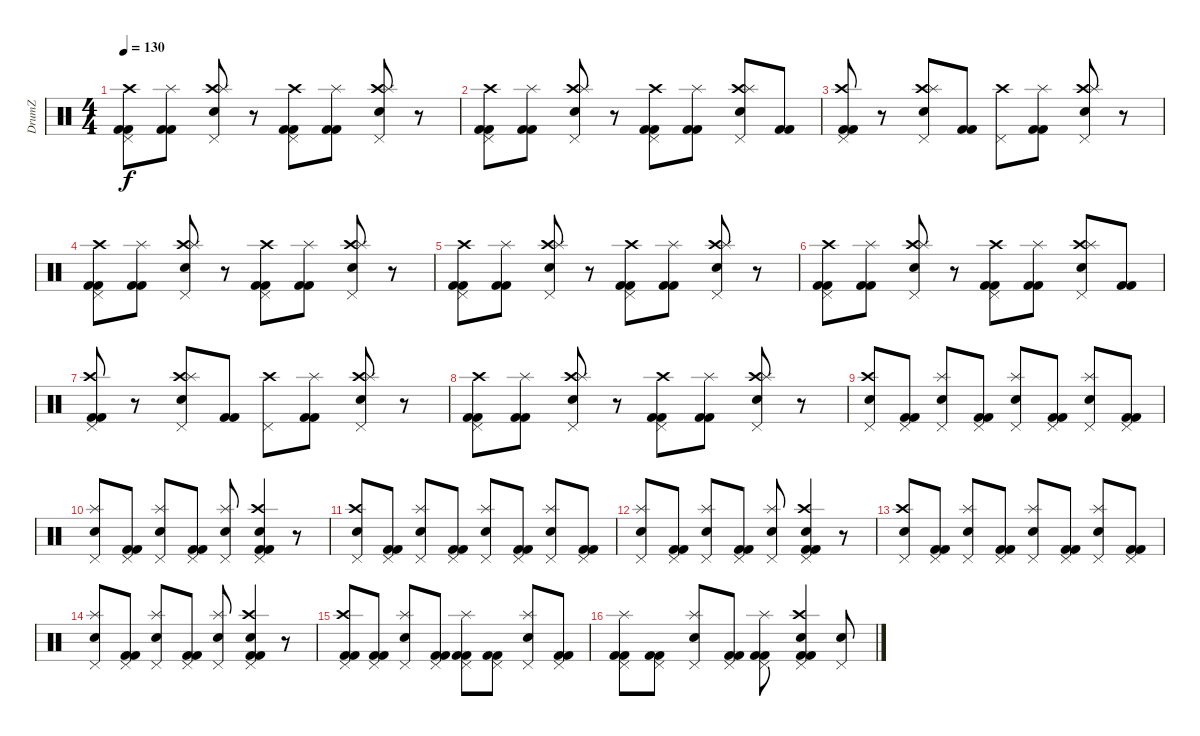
\track ("DrumZ" "DrumZ") {instrument percussion}
\staff {score}
\articulation defaults
\ts (4 4)
\tempo 130
\clef neutral
\ks c
("Pedal Hi-Hat (hit)" "Crash high (hit)" "Kick (hit) 2" "Kick (hit) 2").8{dy f} ("Splash (hit)" "Kick (hit) 2" "Kick (hit) 2").8 ("Pedal Hi-Hat (hit)" "Crash high (hit)" "Splash (hit)" "Snare (hit) 2").8 r.8 ("Pedal Hi-Hat (hit)" "Crash high (hit)" "Kick (hit) 2" "Kick (hit) 2").8 ("Splash (hit)" "Kick (hit) 2" "Kick (hit) 2").8 ("Pedal Hi-Hat (hit)" "Crash high (hit)" "Splash (hit)" "Snare (hit) 2").8 r.8 |
("Pedal Hi-Hat (hit)" "Crash high (hit)" "Kick (hit) 2" "Kick (hit) 2").8 ("Splash (hit)" "Kick (hit) 2" "Kick (hit) 2").8 ("Pedal Hi-Hat (hit)" "Crash high (hit)" "Splash (hit)" "Snare (hit) 2").8 r.8 ("Pedal Hi-Hat (hit)" "Crash high (hit)" "Kick (hit) 2" "Kick (hit) 2").8 ("Splash (hit)" "Kick (hit) 2" "Kick (hit) 2").8 ("Pedal Hi-Hat (hit)" "Crash high (hit)" "Splash (hit)" "Snare (hit) 2").8 ("Kick (hit) 2" "Kick (hit) 2").8 |
("Pedal Hi-Hat (hit)" "Crash high (hit)" "Kick (hit) 2" "Kick (hit) 2").8 r.8 ("Pedal Hi-Hat (hit)" "Crash high (hit)" "Splash (hit)" "Snare (hit) 2").8 ("Kick (hit) 2" "Kick (hit) 2").8 ("Pedal Hi-Hat (hit)" "Crash high (hit)").8 ("Splash (hit)" "Kick (hit) 2" "Kick (hit) 2").8 ("Pedal Hi-Hat (hit)" "Crash high (hit)" "Splash (hit)" "Snare (hit) 2").8 r.8 |
("Pedal Hi-Hat (hit)" "Crash high (hit)" "Kick (hit) 2" "Kick (hit) 2").8 ("Splash (hit)" "Kick (hit) 2" "Kick (hit) 2").8 ("Pedal Hi-Hat (hit)" "Crash high (hit)" "Splash (hit)" "Snare (hit) 2").8 r.8 ("Pedal Hi-Hat (hit)" "Crash high (hit)" "Kick (hit) 2" "Kick (hit) 2").8 ("Splash (hit)" "Kick (hit) 2" "Kick (hit) 2").8 ("Pedal Hi-Hat (hit)" "Crash high (hit)" "Splash (hit)" "Snare (hit) 2").8 r.8 |
("Pedal Hi-Hat (hit)" "Crash high (hit)" "Kick (hit) 2" "Kick (hit) 2").8 ("Splash (hit)" "Kick (hit) 2" "Kick (hit) 2").8 ("Pedal Hi-Hat (hit)" "Crash high (hit)" "Splash (hit)" "Snare (hit) 2").8 r.8 ("Pedal Hi-Hat (hit)" "Crash high (hit)" "Kick (hit) 2" "Kick (hit) 2").8 ("Splash (hit)" "Kick (hit) 2" "Kick (hit) 2").8 ("Pedal Hi-Hat (hit)" "Crash high (hit)" "Splash (hit)" "Snare (hit) 2").8 r.8 |
("Pedal Hi-Hat (hit)" "Crash high (hit)" "Kick (hit) 2" "Kick (hit) 2").8 ("Splash (hit)" "Kick (hit) 2" "Kick (hit) 2").8 ("Pedal Hi-Hat (hit)" "Crash high (hit)" "Splash (hit)" "Snare (hit) 2").8 r.8 ("Pedal Hi-Hat (hit)" "Crash high (hit)" "Kick (hit) 2" "Kick (hit) 2").8 ("Splash (hit)" "Kick (hit) 2" "Kick (hit) 2").8 ("Pedal Hi-Hat (hit)" "Crash high (hit)" "Splash (hit)" "Snare (hit) 2").8 ("Kick (hit) 2" "Kick (hit) 2").8 |
("Pedal Hi-Hat (hit)" "Crash high (hit)" "Kick (hit) 2" "Kick (hit) 2").8 r.8 ("Pedal Hi-Hat (hit)" "Crash high (hit)" "Splash (hit)" "Snare (hit) 2").8 ("Kick (hit) 2" "Kick (hit) 2").8 ("Pedal Hi-Hat (hit)" "Crash high (hit)").8 ("Splash (hit)" "Kick (hit) 2" "Kick (hit) 2").8 ("Pedal Hi-Hat (hit)" "Crash high (hit)" "Splash (hit)" "Snare (hit) 2").8 r.8 |
("Pedal Hi-Hat (hit)" "Crash high (hit)" "Kick (hit) 2" "Kick (hit) 2").8 ("Splash (hit)" "Kick (hit) 2" "Kick (hit) 2").8 ("Pedal Hi-Hat (hit)" "Crash high (hit)" "Splash (hit)" "Snare (hit) 2").8 r.8 ("Pedal Hi-Hat (hit)" "Crash high (hit)" "Kick (hit) 2" "Kick (hit) 2").8 ("Splash (hit)" "Kick (hit) 2" "Kick (hit) 2").8 ("Pedal Hi-Hat (hit)" "Crash high (hit)" "Splash (hit)" "Snare (hit) 2").8 r.8 |
("Pedal Hi-Hat (hit)" "Crash high (hit)" "Snare (hit) 2").8 ("Pedal Hi-Hat (hit)" "Kick (hit) 2" "Kick (hit) 2").8 ("Pedal Hi-Hat (hit)" "Splash (hit)" "Snare (hit) 2").8 ("Pedal Hi-Hat (hit)" "Kick (hit) 2" "Kick (hit) 2").8 ("Pedal Hi-Hat (hit)" "Splash (hit)" "Snare (hit) 2").8 ("Pedal Hi-Hat (hit)" "Kick (hit) 2" "Kick (hit) 2").8 ("Pedal Hi-Hat (hit)" "Splash (hit)" "Snare (hit) 2").8 ("Pedal Hi-Hat (hit)" "Kick (hit) 2" "Kick (hit) 2").8 |
("Pedal Hi-Hat (hit)" "Splash (hit)" "Snare (hit) 2").8 ("Pedal Hi-Hat (hit)" "Kick (hit) 2" "Kick (hit) 2").8 ("Pedal Hi-Hat (hit)" "Splash (hit)" "Snare (hit) 2").8 ("Pedal Hi-Hat (hit)" "Kick (hit) 2" "Kick (hit) 2").8 ("Pedal Hi-Hat (hit)" "Splash (hit)" "Snare (hit) 2").8 ("Pedal Hi-Hat (hit)" "Crash high (hit)" "Snare (hit) 2" "Kick (hit) 2" "Kick (hit) 2").4 r.8 |
("Pedal Hi-Hat (hit)" "Crash high (hit)" "Snare (hit) 2").8 ("Pedal Hi-Hat (hit)" "Kick (hit) 2" "Kick (hit) 2").8 ("Pedal Hi-Hat (hit)" "Splash (hit)" "Snare (hit) 2").8 ("Pedal Hi-Hat (hit)" "Kick (hit) 2" "Kick (hit) 2").8 ("Pedal Hi-Hat (hit)" "Splash (hit)" "Snare (hit) 2").8 ("Pedal Hi-Hat (hit)" "Kick (hit) 2" "Kick (hit) 2").8 ("Pedal Hi-Hat (hit)" "Splash (hit)" "Snare (hit) 2").8 ("Pedal Hi-Hat (hit)" "Kick (hit) 2" "Kick (hit) 2").8 |
("Pedal Hi-Hat (hit)" "Splash (hit)" "Snare (hit) 2").8 ("Pedal Hi-Hat (hit)" "Kick (hit) 2" "Kick (hit) 2").8 ("Pedal Hi-Hat (hit)" "Splash (hit)" "Snare (hit) 2").8 ("Pedal Hi-Hat (hit)" "Kick (hit) 2" "Kick (hit) 2").8 ("Pedal Hi-Hat (hit)" "Splash (hit)" "Snare (hit) 2").8 ("Pedal Hi-Hat (hit)" "Crash high (hit)" "Snare (hit) 2" "Kick (hit) 2" "Kick (hit) 2").4 r.8 |
("Pedal Hi-Hat (hit)" "Crash high (hit)" "Snare (hit) 2").8 ("Pedal Hi-Hat (hit)" "Kick (hit) 2" "Kick (hit) 2").8 ("Pedal Hi-Hat (hit)" "Splash (hit)" "Snare (hit) 2").8 ("Pedal Hi-Hat (hit)" "Kick (hit) 2" "Kick (hit) 2").8 ("Pedal Hi-Hat (hit)" "Splash (hit)" "Snare (hit) 2").8 ("Pedal Hi-Hat (hit)" "Kick (hit) 2" "Kick (hit) 2").8 ("Pedal Hi-Hat (hit)" "Splash (hit)" "Snare (hit) 2").8 ("Pedal Hi-Hat (hit)" "Kick (hit) 2" "Kick (hit) 2").8 |
("Pedal Hi-Hat (hit)" "Splash (hit)" "Snare (hit) 2").8 ("Pedal Hi-Hat (hit)" "Kick (hit) 2" "Kick (hit) 2").8 ("Pedal Hi-Hat (hit)" "Splash (hit)" "Snare (hit) 2").8 ("Pedal Hi-Hat (hit)" "Kick (hit) 2" "Kick (hit) 2").8 ("Pedal Hi-Hat (hit)" "Splash (hit)" "Snare (hit) 2").8 ("Pedal Hi-Hat (hit)" "Crash high (hit)" "Snare (hit) 2" "Kick (hit) 2" "Kick (hit) 2").4 r.8 |
("Pedal Hi-Hat (hit)" "Crash high (hit)" "Kick (hit) 2" "Kick (hit) 2").8 ("Pedal Hi-Hat (hit)" "Kick (hit) 2" "Kick (hit) 2").8 ("Pedal Hi-Hat (hit)" "Splash (hit)" "Snare (hit) 2").8 ("Pedal Hi-Hat (hit)" "Kick (hit) 2" "Kick (hit) 2").8 ("Pedal Hi-Hat (hit)" "Splash (hit)" "Kick (hit) 2" "Kick (hit) 2").8 ("Pedal Hi-Hat (hit)" "Kick (hit) 2" "Kick (hit) 2").8 ("Pedal Hi-Hat (hit)" "Splash (hit)" "Snare (hit) 2").8 ("Pedal Hi-Hat (hit)" "Kick (hit) 2" "Kick (hit) 2").8 |
("Pedal Hi-Hat (hit)" "Splash (hit)" "Kick (hit) 2" "Kick (hit) 2").8 ("Pedal Hi-Hat (hit)" "Kick (hit) 2" "Kick (hit) 2").8 ("Pedal Hi-Hat (hit)" "Splash (hit)" "Snare (hit) 2").8 ("Pedal Hi-Hat (hit)" "Kick (hit) 2" "Kick (hit) 2").8 ("Pedal Hi-Hat (hit)" "Splash (hit)" "Kick (hit) 2" "Kick (hit) 2").8 ("Pedal Hi-Hat (hit)" "Crash high (hit)" "Snare (hit) 2" "Kick (hit) 2" "Kick (hit) 2").4 ("Pedal Hi-Hat (hit)" "Snare (hit) 2").8
